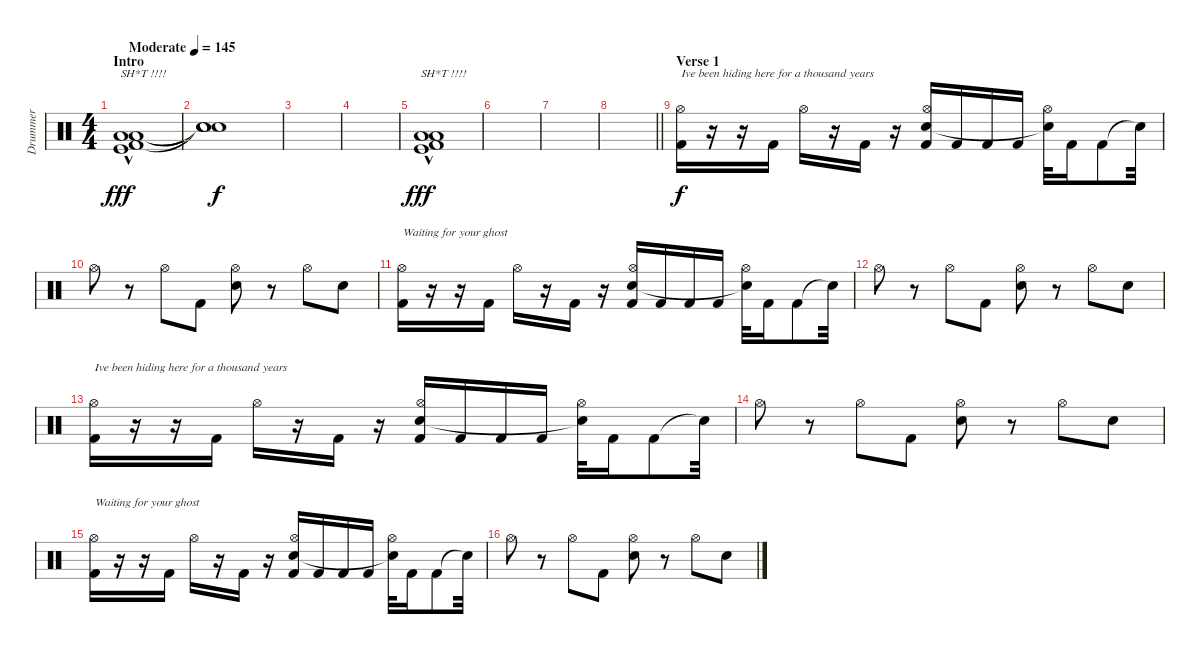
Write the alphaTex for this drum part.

\track ("Drummer" "Drummer") {instrument percussion}
\staff {score}
\articulation defaults
\ts (4 4)
\section ("" "Intro")
\tempo (145 "Moderate")
\clef neutral
\ks c
("Low Tom (hit)"{hac} "Low Floor Tom (hit)"{hac} "Kick (hit) 2"{hac} "Kick (hit)"{hac}).1{txt "SH*T !!!!" dy fff} |
("Snare (hit)"{t} "Snare (hit)"{t} "Snare (hit)"{t}).1{dy f} |
|
|
("Low Tom (hit)" "Low Floor Tom (hit)" "Kick (hit) 2"{hac} "Kick (hit)"{hac}).1{txt "SH*T !!!!" dy fff} |
|
|
\barLineRight lightlight
|
\section ("" "Verse 1")
("Hi-Hat (open)" "Kick (hit) 2").16{txt "Ive been hiding here for a thousand years" dy f} r.16 r.16 "Kick (hit) 2".16 "Hi-Hat (open)".16 r.16 "Kick (hit) 2".16 r.16 ("Hi-Hat (open)" "Electric Snare (hit)" "Kick (hit) 2").16 "Kick (hit) 2".16 "Kick (hit) 2".16 "Kick (hit) 2".16 ("Hi-Hat (open)" "Snare (hit)"{t}).32 "Kick (hit) 2".16 "Kick (hit) 2".8 "Snare (hit)"{t}.32 |
"Hi-Hat (open)".8 r.8 "Hi-Hat (open)".8 "Kick (hit) 2".8 ("Hi-Hat (open)" "Electric Snare (hit)").8 r.8 "Hi-Hat (open)".8 "Snare (hit)".8 |
("Hi-Hat (open)" "Kick (hit) 2").16{txt "Waiting for your ghost"} r.16 r.16 "Kick (hit) 2".16 "Hi-Hat (open)".16 r.16 "Kick (hit) 2".16 r.16 ("Hi-Hat (open)" "Electric Snare (hit)" "Kick (hit) 2").16 "Kick (hit) 2".16 "Kick (hit) 2".16 "Kick (hit) 2".16 ("Hi-Hat (open)" "Snare (hit)"{t}).32 "Kick (hit) 2".16 "Kick (hit) 2".8 "Snare (hit)"{t}.32 |
"Hi-Hat (open)".8 r.8 "Hi-Hat (open)".8 "Kick (hit) 2".8 ("Hi-Hat (open)" "Electric Snare (hit)").8 r.8 "Hi-Hat (open)".8 "Snare (hit)".8 |
("Hi-Hat (open)" "Kick (hit) 2").16{txt "Ive been hiding here for a thousand years"} r.16 r.16 "Kick (hit) 2".16 "Hi-Hat (open)".16 r.16 "Kick (hit) 2".16 r.16 ("Hi-Hat (open)" "Electric Snare (hit)" "Kick (hit) 2").16 "Kick (hit) 2".16 "Kick (hit) 2".16 "Kick (hit) 2".16 ("Hi-Hat (open)" "Snare (hit)"{t}).32 "Kick (hit) 2".16 "Kick (hit) 2".8 "Snare (hit)"{t}.32 |
"Hi-Hat (open)".8 r.8 "Hi-Hat (open)".8 "Kick (hit) 2".8 ("Hi-Hat (open)" "Electric Snare (hit)").8 r.8 "Hi-Hat (open)".8 "Snare (hit)".8 |
("Hi-Hat (open)" "Kick (hit) 2").16{txt "Waiting for your ghost"} r.16 r.16 "Kick (hit) 2".16 "Hi-Hat (open)".16 r.16 "Kick (hit) 2".16 r.16 ("Hi-Hat (open)" "Electric Snare (hit)" "Kick (hit) 2").16 "Kick (hit) 2".16 "Kick (hit) 2".16 "Kick (hit) 2".16 ("Hi-Hat (open)" "Snare (hit)"{t}).32 "Kick (hit) 2".16 "Kick (hit) 2".8 "Snare (hit)"{t}.32 |
"Hi-Hat (open)".8 r.8 "Hi-Hat (open)".8 "Kick (hit) 2".8 ("Hi-Hat (open)" "Electric Snare (hit)").8 r.8 "Hi-Hat (open)".8 "Snare (hit)".8
